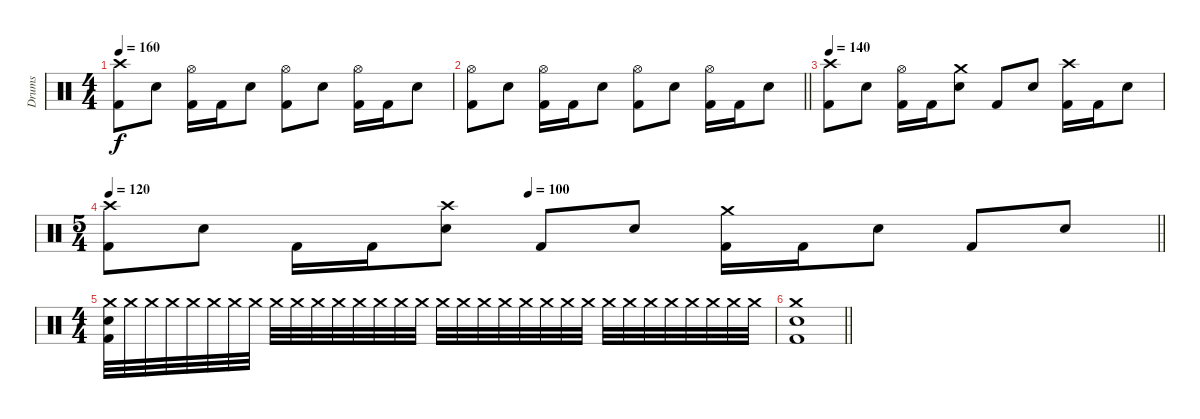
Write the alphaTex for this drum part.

\track ("Drums" "Drums") {instrument percussion}
\staff {score}
\articulation defaults
\ts (4 4)
\tempo 160
\clef neutral
\ks c
("Crash high (hit)" "Kick (hit) 2").8{dy f} "Snare (hit) 2".8 ("Hi-Hat (open)" "Kick (hit) 2").16 "Kick (hit) 2".16 "Snare (hit) 2".8 ("Hi-Hat (open)" "Kick (hit) 2").8 "Snare (hit) 2".8 ("Hi-Hat (open)" "Kick (hit) 2").16 "Kick (hit) 2".16 "Snare (hit) 2".8 |
\barLineRight lightlight
("Hi-Hat (open)" "Kick (hit) 2").8 "Snare (hit) 2".8 ("Hi-Hat (open)" "Kick (hit) 2").16 "Kick (hit) 2".16 "Snare (hit) 2".8 ("Hi-Hat (open)" "Kick (hit) 2").8 "Snare (hit) 2".8 ("Hi-Hat (open)" "Kick (hit) 2").16 "Kick (hit) 2".16 "Snare (hit) 2".8 |
\tempo 140
("Crash high (hit)" "Kick (hit) 2").8 "Snare (hit) 2".8 ("Hi-Hat (open)" "Kick (hit) 2").16 "Kick (hit) 2".16 ("Crash medium (hit)" "Snare (hit) 2").8 "Kick (hit) 2".8 "Snare (hit) 2".8 ("Crash high (hit)" "Kick (hit) 2").16 "Kick (hit) 2".16 "Snare (hit) 2".8 |
\ts (5 4)
\tempo 120
\tempo (100 0.4)
\barLineRight lightlight
("Crash high (hit)" "Kick (hit) 2").8 "Snare (hit) 2".8 "Kick (hit) 2".16 "Kick (hit) 2".16 ("Crash high (hit)" "Snare (hit) 2").8 "Kick (hit) 2".8 "Snare (hit) 2".8 ("Crash medium (hit)" "Kick (hit) 2").16 "Kick (hit) 2".16 "Snare (hit) 2".8 "Kick (hit) 2".8 "Snare (hit) 2".8 |
\ts (4 4)
("Crash medium (hit)" "Snare (hit) 2" "Kick (hit) 2").32 "Crash medium (hit)".32 "Crash medium (hit)".32 "Crash medium (hit)".32 "Crash medium (hit)".32 "Crash medium (hit)".32 "Crash medium (hit)".32 "Crash medium (hit)".32 "Crash medium (hit)".32 "Crash medium (hit)".32 "Crash medium (hit)".32 "Crash medium (hit)".32 "Crash medium (hit)".32 "Crash medium (hit)".32 "Crash medium (hit)".32 "Crash medium (hit)".32 "Crash medium (hit)".32 "Crash medium (hit)".32 "Crash medium (hit)".32 "Crash medium (hit)".32 "Crash medium (hit)".32 "Crash medium (hit)".32 "Crash medium (hit)".32 "Crash medium (hit)".32 "Crash medium (hit)".32 "Crash medium (hit)".32 "Crash medium (hit)".32 "Crash medium (hit)".32 "Crash medium (hit)".32 "Crash medium (hit)".32 "Crash medium (hit)".32 "Crash medium (hit)".32 |
\barLineRight lightlight
("Crash medium (hit)" "Snare (hit) 2" "Kick (hit) 2").1
